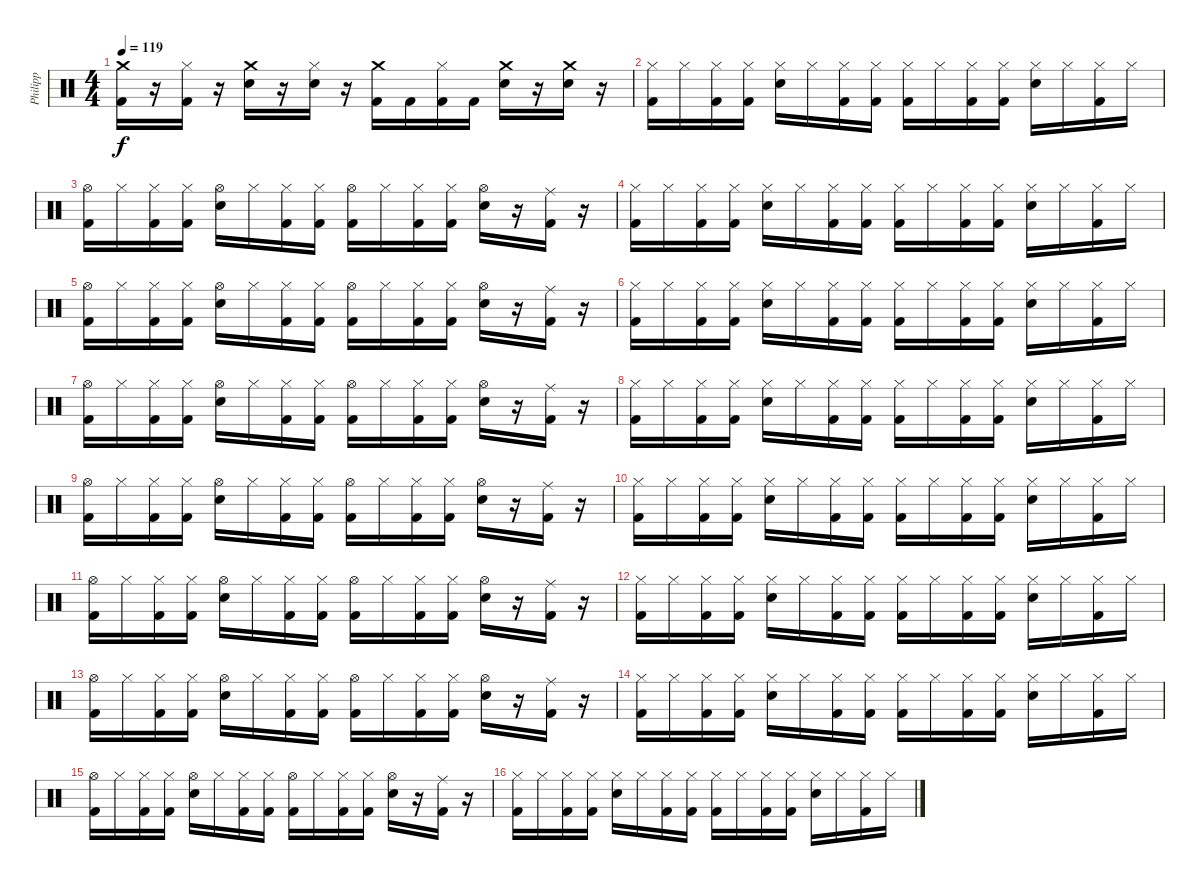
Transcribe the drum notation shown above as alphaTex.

\track ("Philipp" "Philipp") {instrument percussion}
\staff {score}
\articulation defaults
\ts (4 4)
\tempo 119
\clef neutral
\ks c
("Crash medium (hit)" "Kick (hit) 2").16{dy f} r.16 ("Hi-Hat (closed)" "Kick (hit) 2").16 r.16 ("Crash medium (hit)" "Electric Snare (hit)").16 r.16 ("Hi-Hat (closed)" "Electric Snare (hit)").16 r.16 ("Crash medium (hit)" "Kick (hit) 2").16 "Kick (hit) 2".16 ("Hi-Hat (closed)" "Kick (hit) 2").16 "Kick (hit) 2".16 ("Crash medium (hit)" "Electric Snare (hit)").16 r.16 ("Crash medium (hit)" "Electric Snare (hit)").16 r.16 |
("Hi-Hat (closed)" "Kick (hit) 2").16 "Hi-Hat (closed)".16 ("Hi-Hat (closed)" "Kick (hit) 2").16 ("Hi-Hat (closed)" "Kick (hit) 2").16 ("Hi-Hat (closed)" "Electric Snare (hit)").16 "Hi-Hat (closed)".16 ("Hi-Hat (closed)" "Kick (hit) 2").16 ("Hi-Hat (closed)" "Kick (hit) 2").16 ("Hi-Hat (closed)" "Kick (hit) 2").16 "Hi-Hat (closed)".16 ("Hi-Hat (closed)" "Kick (hit) 2").16 ("Hi-Hat (closed)" "Kick (hit) 2").16 ("Hi-Hat (closed)" "Electric Snare (hit)").16 "Hi-Hat (closed)".16 ("Hi-Hat (closed)" "Kick (hit) 2").16 "Hi-Hat (closed)".16 |
("Hi-Hat (open)" "Kick (hit) 2").16 "Hi-Hat (closed)".16 ("Hi-Hat (closed)" "Kick (hit) 2").16 ("Hi-Hat (closed)" "Kick (hit) 2").16 ("Hi-Hat (open)" "Electric Snare (hit)").16 "Hi-Hat (closed)".16 ("Hi-Hat (closed)" "Kick (hit) 2").16 ("Hi-Hat (closed)" "Kick (hit) 2").16 ("Hi-Hat (open)" "Kick (hit) 2").16 "Hi-Hat (closed)".16 ("Hi-Hat (closed)" "Kick (hit) 2").16 ("Hi-Hat (closed)" "Kick (hit) 2").16 ("Hi-Hat (open)" "Electric Snare (hit)").16 r.16 ("Ride (middle)" "Kick (hit) 2").16 r.16 |
("Hi-Hat (closed)" "Kick (hit) 2").16 "Hi-Hat (closed)".16 ("Hi-Hat (closed)" "Kick (hit) 2").16 ("Hi-Hat (closed)" "Kick (hit) 2").16 ("Hi-Hat (closed)" "Electric Snare (hit)").16 "Hi-Hat (closed)".16 ("Hi-Hat (closed)" "Kick (hit) 2").16 ("Hi-Hat (closed)" "Kick (hit) 2").16 ("Hi-Hat (closed)" "Kick (hit) 2").16 "Hi-Hat (closed)".16 ("Hi-Hat (closed)" "Kick (hit) 2").16 ("Hi-Hat (closed)" "Kick (hit) 2").16 ("Hi-Hat (closed)" "Electric Snare (hit)").16 "Hi-Hat (closed)".16 ("Hi-Hat (closed)" "Kick (hit) 2").16 "Hi-Hat (closed)".16 |
("Hi-Hat (open)" "Kick (hit) 2").16 "Hi-Hat (closed)".16 ("Hi-Hat (closed)" "Kick (hit) 2").16 ("Hi-Hat (closed)" "Kick (hit) 2").16 ("Hi-Hat (open)" "Electric Snare (hit)").16 "Hi-Hat (closed)".16 ("Hi-Hat (closed)" "Kick (hit) 2").16 ("Hi-Hat (closed)" "Kick (hit) 2").16 ("Hi-Hat (open)" "Kick (hit) 2").16 "Hi-Hat (closed)".16 ("Hi-Hat (closed)" "Kick (hit) 2").16 ("Hi-Hat (closed)" "Kick (hit) 2").16 ("Hi-Hat (open)" "Electric Snare (hit)").16 r.16 ("Ride (middle)" "Kick (hit) 2").16 r.16 |
("Hi-Hat (closed)" "Kick (hit) 2").16 "Hi-Hat (closed)".16 ("Hi-Hat (closed)" "Kick (hit) 2").16 ("Hi-Hat (closed)" "Kick (hit) 2").16 ("Hi-Hat (closed)" "Electric Snare (hit)").16 "Hi-Hat (closed)".16 ("Hi-Hat (closed)" "Kick (hit) 2").16 ("Hi-Hat (closed)" "Kick (hit) 2").16 ("Hi-Hat (closed)" "Kick (hit) 2").16 "Hi-Hat (closed)".16 ("Hi-Hat (closed)" "Kick (hit) 2").16 ("Hi-Hat (closed)" "Kick (hit) 2").16 ("Hi-Hat (closed)" "Electric Snare (hit)").16 "Hi-Hat (closed)".16 ("Hi-Hat (closed)" "Kick (hit) 2").16 "Hi-Hat (closed)".16 |
("Hi-Hat (open)" "Kick (hit) 2").16 "Hi-Hat (closed)".16 ("Hi-Hat (closed)" "Kick (hit) 2").16 ("Hi-Hat (closed)" "Kick (hit) 2").16 ("Hi-Hat (open)" "Electric Snare (hit)").16 "Hi-Hat (closed)".16 ("Hi-Hat (closed)" "Kick (hit) 2").16 ("Hi-Hat (closed)" "Kick (hit) 2").16 ("Hi-Hat (open)" "Kick (hit) 2").16 "Hi-Hat (closed)".16 ("Hi-Hat (closed)" "Kick (hit) 2").16 ("Hi-Hat (closed)" "Kick (hit) 2").16 ("Hi-Hat (open)" "Electric Snare (hit)").16 r.16 ("Ride (middle)" "Kick (hit) 2").16 r.16 |
("Hi-Hat (closed)" "Kick (hit) 2").16 "Hi-Hat (closed)".16 ("Hi-Hat (closed)" "Kick (hit) 2").16 ("Hi-Hat (closed)" "Kick (hit) 2").16 ("Hi-Hat (closed)" "Electric Snare (hit)").16 "Hi-Hat (closed)".16 ("Hi-Hat (closed)" "Kick (hit) 2").16 ("Hi-Hat (closed)" "Kick (hit) 2").16 ("Hi-Hat (closed)" "Kick (hit) 2").16 "Hi-Hat (closed)".16 ("Hi-Hat (closed)" "Kick (hit) 2").16 ("Hi-Hat (closed)" "Kick (hit) 2").16 ("Hi-Hat (closed)" "Electric Snare (hit)").16 "Hi-Hat (closed)".16 ("Hi-Hat (closed)" "Kick (hit) 2").16 "Hi-Hat (closed)".16 |
("Hi-Hat (open)" "Kick (hit) 2").16 "Hi-Hat (closed)".16 ("Hi-Hat (closed)" "Kick (hit) 2").16 ("Hi-Hat (closed)" "Kick (hit) 2").16 ("Hi-Hat (open)" "Electric Snare (hit)").16 "Hi-Hat (closed)".16 ("Hi-Hat (closed)" "Kick (hit) 2").16 ("Hi-Hat (closed)" "Kick (hit) 2").16 ("Hi-Hat (open)" "Kick (hit) 2").16 "Hi-Hat (closed)".16 ("Hi-Hat (closed)" "Kick (hit) 2").16 ("Hi-Hat (closed)" "Kick (hit) 2").16 ("Hi-Hat (open)" "Electric Snare (hit)").16 r.16 ("Ride (middle)" "Kick (hit) 2").16 r.16 |
("Hi-Hat (closed)" "Kick (hit) 2").16 "Hi-Hat (closed)".16 ("Hi-Hat (closed)" "Kick (hit) 2").16 ("Hi-Hat (closed)" "Kick (hit) 2").16 ("Hi-Hat (closed)" "Electric Snare (hit)").16 "Hi-Hat (closed)".16 ("Hi-Hat (closed)" "Kick (hit) 2").16 ("Hi-Hat (closed)" "Kick (hit) 2").16 ("Hi-Hat (closed)" "Kick (hit) 2").16 "Hi-Hat (closed)".16 ("Hi-Hat (closed)" "Kick (hit) 2").16 ("Hi-Hat (closed)" "Kick (hit) 2").16 ("Hi-Hat (closed)" "Electric Snare (hit)").16 "Hi-Hat (closed)".16 ("Hi-Hat (closed)" "Kick (hit) 2").16 "Hi-Hat (closed)".16 |
("Hi-Hat (open)" "Kick (hit) 2").16 "Hi-Hat (closed)".16 ("Hi-Hat (closed)" "Kick (hit) 2").16 ("Hi-Hat (closed)" "Kick (hit) 2").16 ("Hi-Hat (open)" "Electric Snare (hit)").16 "Hi-Hat (closed)".16 ("Hi-Hat (closed)" "Kick (hit) 2").16 ("Hi-Hat (closed)" "Kick (hit) 2").16 ("Hi-Hat (open)" "Kick (hit) 2").16 "Hi-Hat (closed)".16 ("Hi-Hat (closed)" "Kick (hit) 2").16 ("Hi-Hat (closed)" "Kick (hit) 2").16 ("Hi-Hat (open)" "Electric Snare (hit)").16 r.16 ("Ride (middle)" "Kick (hit) 2").16 r.16 |
("Hi-Hat (closed)" "Kick (hit) 2").16 "Hi-Hat (closed)".16 ("Hi-Hat (closed)" "Kick (hit) 2").16 ("Hi-Hat (closed)" "Kick (hit) 2").16 ("Hi-Hat (closed)" "Electric Snare (hit)").16 "Hi-Hat (closed)".16 ("Hi-Hat (closed)" "Kick (hit) 2").16 ("Hi-Hat (closed)" "Kick (hit) 2").16 ("Hi-Hat (closed)" "Kick (hit) 2").16 "Hi-Hat (closed)".16 ("Hi-Hat (closed)" "Kick (hit) 2").16 ("Hi-Hat (closed)" "Kick (hit) 2").16 ("Hi-Hat (closed)" "Electric Snare (hit)").16 "Hi-Hat (closed)".16 ("Hi-Hat (closed)" "Kick (hit) 2").16 "Hi-Hat (closed)".16 |
("Hi-Hat (open)" "Kick (hit) 2").16 "Hi-Hat (closed)".16 ("Hi-Hat (closed)" "Kick (hit) 2").16 ("Hi-Hat (closed)" "Kick (hit) 2").16 ("Hi-Hat (open)" "Electric Snare (hit)").16 "Hi-Hat (closed)".16 ("Hi-Hat (closed)" "Kick (hit) 2").16 ("Hi-Hat (closed)" "Kick (hit) 2").16 ("Hi-Hat (open)" "Kick (hit) 2").16 "Hi-Hat (closed)".16 ("Hi-Hat (closed)" "Kick (hit) 2").16 ("Hi-Hat (closed)" "Kick (hit) 2").16 ("Hi-Hat (open)" "Electric Snare (hit)").16 r.16 ("Ride (middle)" "Kick (hit) 2").16 r.16 |
("Hi-Hat (closed)" "Kick (hit) 2").16 "Hi-Hat (closed)".16 ("Hi-Hat (closed)" "Kick (hit) 2").16 ("Hi-Hat (closed)" "Kick (hit) 2").16 ("Hi-Hat (closed)" "Electric Snare (hit)").16 "Hi-Hat (closed)".16 ("Hi-Hat (closed)" "Kick (hit) 2").16 ("Hi-Hat (closed)" "Kick (hit) 2").16 ("Hi-Hat (closed)" "Kick (hit) 2").16 "Hi-Hat (closed)".16 ("Hi-Hat (closed)" "Kick (hit) 2").16 ("Hi-Hat (closed)" "Kick (hit) 2").16 ("Hi-Hat (closed)" "Electric Snare (hit)").16 "Hi-Hat (closed)".16 ("Hi-Hat (closed)" "Kick (hit) 2").16 "Hi-Hat (closed)".16 |
("Hi-Hat (open)" "Kick (hit) 2").16 "Hi-Hat (closed)".16 ("Hi-Hat (closed)" "Kick (hit) 2").16 ("Hi-Hat (closed)" "Kick (hit) 2").16 ("Hi-Hat (open)" "Electric Snare (hit)").16 "Hi-Hat (closed)".16 ("Hi-Hat (closed)" "Kick (hit) 2").16 ("Hi-Hat (closed)" "Kick (hit) 2").16 ("Hi-Hat (open)" "Kick (hit) 2").16 "Hi-Hat (closed)".16 ("Hi-Hat (closed)" "Kick (hit) 2").16 ("Hi-Hat (closed)" "Kick (hit) 2").16 ("Hi-Hat (open)" "Electric Snare (hit)").16 r.16 ("Ride (middle)" "Kick (hit) 2").16 r.16 |
("Hi-Hat (closed)" "Kick (hit) 2").16 "Hi-Hat (closed)".16 ("Hi-Hat (closed)" "Kick (hit) 2").16 ("Hi-Hat (closed)" "Kick (hit) 2").16 ("Hi-Hat (closed)" "Electric Snare (hit)").16 "Hi-Hat (closed)".16 ("Hi-Hat (closed)" "Kick (hit) 2").16 ("Hi-Hat (closed)" "Kick (hit) 2").16 ("Hi-Hat (closed)" "Kick (hit) 2").16 "Hi-Hat (closed)".16 ("Hi-Hat (closed)" "Kick (hit) 2").16 ("Hi-Hat (closed)" "Kick (hit) 2").16 ("Hi-Hat (closed)" "Electric Snare (hit)").16 "Hi-Hat (closed)".16 ("Hi-Hat (closed)" "Kick (hit) 2").16 "Hi-Hat (closed)".16
